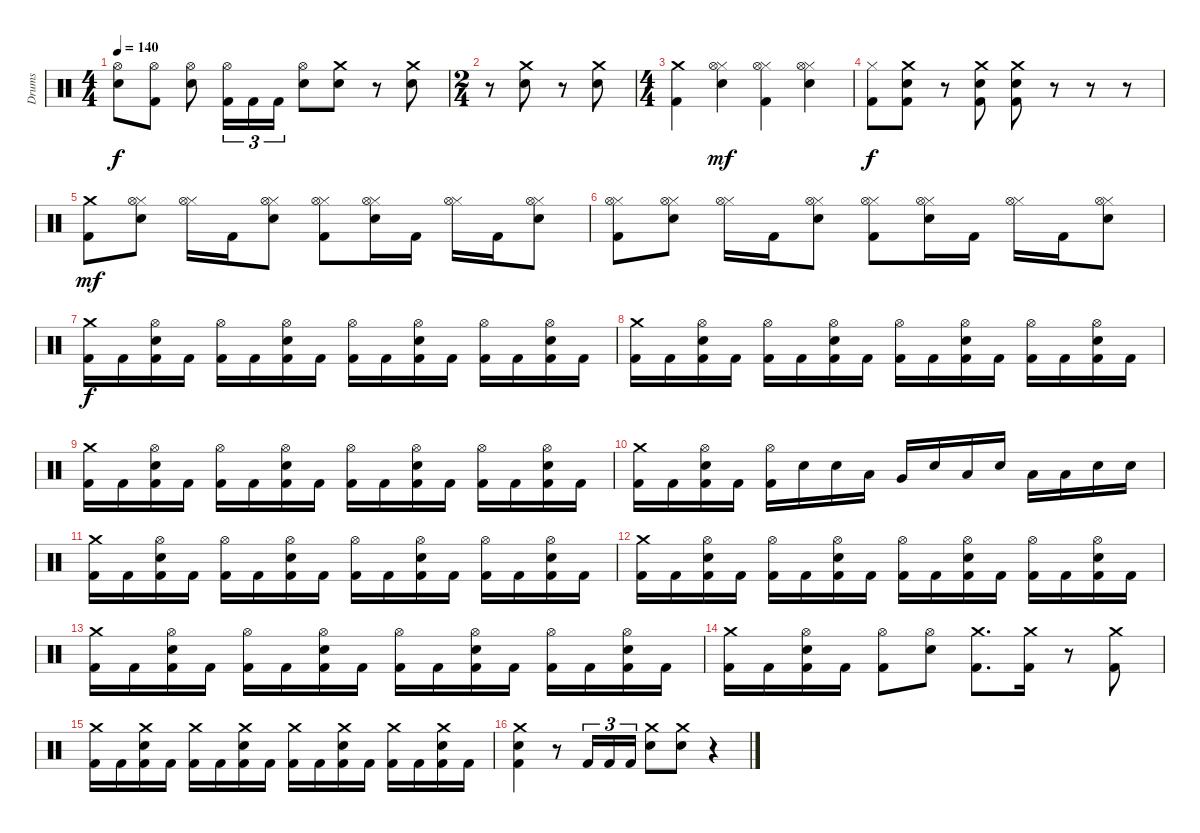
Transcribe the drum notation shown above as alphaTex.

\track ("Drums" "Drums") {instrument percussion}
\staff {score}
\articulation defaults
\ts (4 4)
\tempo 140
\clef neutral
\ks c
("Hi-Hat (open)" "Electric Snare (hit)").8{dy f} ("Hi-Hat (open)" "Kick (hit) 2").8 ("Hi-Hat (open)" "Electric Snare (hit)").8 ("Hi-Hat (open)" "Kick (hit) 2").16{tu (3 2)} "Kick (hit) 2".16{tu (3 2)} "Kick (hit) 2".16{tu (3 2)} ("Hi-Hat (open)" "Electric Snare (hit)").8 ("Crash medium (hit)" "Electric Snare (hit)").8 r.8 ("Crash medium (hit)" "Electric Snare (hit)").8 |
\ts (2 4)
r.8 ("Crash medium (hit)" "Electric Snare (hit)").8 r.8 ("Crash medium (hit)" "Electric Snare (hit)").8 |
\ts (4 4)
("Crash medium (hit)" "Kick (hit) 2").4 ("Hi-Hat (closed)" "Hi-Hat (open)" "Electric Snare (hit)").4{dy mf} ("Hi-Hat (closed)" "Hi-Hat (open)" "Kick (hit) 2").4 ("Hi-Hat (closed)" "Hi-Hat (open)" "Electric Snare (hit)").4 |
("Hi-Hat (closed)" "Kick (hit) 2").8{dy f} ("Crash medium (hit)" "Electric Snare (hit)" "Kick (hit) 2").8 r.8 ("Crash medium (hit)" "Electric Snare (hit)" "Kick (hit) 2").8 ("Crash medium (hit)" "Electric Snare (hit)" "Kick (hit) 2").8 r.8 r.8 r.8 |
("Crash medium (hit)" "Kick (hit) 2").8{dy mf} ("Hi-Hat (closed)" "Hi-Hat (open)" "Electric Snare (hit)").8 ("Hi-Hat (closed)" "Hi-Hat (open)").16 "Kick (hit) 2".16 ("Hi-Hat (closed)" "Hi-Hat (open)" "Electric Snare (hit)").8 ("Hi-Hat (closed)" "Hi-Hat (open)" "Kick (hit) 2").8 ("Hi-Hat (closed)" "Hi-Hat (open)" "Electric Snare (hit)").16 "Kick (hit) 2".16 ("Hi-Hat (closed)" "Hi-Hat (open)").16 "Kick (hit) 2".16 ("Hi-Hat (closed)" "Hi-Hat (open)" "Electric Snare (hit)").8 |
("Hi-Hat (closed)" "Hi-Hat (open)" "Kick (hit) 2").8 ("Hi-Hat (closed)" "Hi-Hat (open)" "Electric Snare (hit)").8 ("Hi-Hat (closed)" "Hi-Hat (open)").16 "Kick (hit) 2".16 ("Hi-Hat (closed)" "Hi-Hat (open)" "Electric Snare (hit)").8 ("Hi-Hat (closed)" "Hi-Hat (open)" "Kick (hit) 2").8 ("Hi-Hat (closed)" "Hi-Hat (open)" "Electric Snare (hit)").16 "Kick (hit) 2".16 ("Hi-Hat (closed)" "Hi-Hat (open)").16 "Kick (hit) 2".16 ("Hi-Hat (closed)" "Hi-Hat (open)" "Electric Snare (hit)").8 |
("Crash medium (hit)" "Kick (hit) 2").16{dy f} "Kick (hit) 2".16 ("Hi-Hat (open)" "Electric Snare (hit)" "Kick (hit) 2").16 "Kick (hit) 2".16 ("Hi-Hat (open)" "Kick (hit) 2").16 "Kick (hit) 2".16 ("Hi-Hat (open)" "Electric Snare (hit)" "Kick (hit) 2").16 "Kick (hit) 2".16 ("Hi-Hat (open)" "Kick (hit) 2").16 "Kick (hit) 2".16 ("Hi-Hat (open)" "Electric Snare (hit)" "Kick (hit) 2").16 "Kick (hit) 2".16 ("Hi-Hat (open)" "Kick (hit) 2").16 "Kick (hit) 2".16 ("Hi-Hat (open)" "Electric Snare (hit)" "Kick (hit) 2").16 "Kick (hit) 2".16 |
("Crash medium (hit)" "Kick (hit) 2").16 "Kick (hit) 2".16 ("Hi-Hat (open)" "Electric Snare (hit)" "Kick (hit) 2").16 "Kick (hit) 2".16 ("Hi-Hat (open)" "Kick (hit) 2").16 "Kick (hit) 2".16 ("Hi-Hat (open)" "Electric Snare (hit)" "Kick (hit) 2").16 "Kick (hit) 2".16 ("Hi-Hat (open)" "Kick (hit) 2").16 "Kick (hit) 2".16 ("Hi-Hat (open)" "Electric Snare (hit)" "Kick (hit) 2").16 "Kick (hit) 2".16 ("Hi-Hat (open)" "Kick (hit) 2").16 "Kick (hit) 2".16 ("Hi-Hat (open)" "Electric Snare (hit)" "Kick (hit) 2").16 "Kick (hit) 2".16 |
("Crash medium (hit)" "Kick (hit) 2").16 "Kick (hit) 2".16 ("Hi-Hat (open)" "Electric Snare (hit)" "Kick (hit) 2").16 "Kick (hit) 2".16 ("Hi-Hat (open)" "Kick (hit) 2").16 "Kick (hit) 2".16 ("Hi-Hat (open)" "Electric Snare (hit)" "Kick (hit) 2").16 "Kick (hit) 2".16 ("Hi-Hat (open)" "Kick (hit) 2").16 "Kick (hit) 2".16 ("Hi-Hat (open)" "Electric Snare (hit)" "Kick (hit) 2").16 "Kick (hit) 2".16 ("Hi-Hat (open)" "Kick (hit) 2").16 "Kick (hit) 2".16 ("Hi-Hat (open)" "Electric Snare (hit)" "Kick (hit) 2").16 "Kick (hit) 2".16 |
("Crash medium (hit)" "Kick (hit) 2").16 "Kick (hit) 2".16 ("Hi-Hat (open)" "Electric Snare (hit)" "Kick (hit) 2").16 "Kick (hit) 2".16 ("Hi-Hat (open)" "Kick (hit) 2").16 "Electric Snare (hit)".16 "Electric Snare (hit)".16 "Low Tom (hit)".16 "Very Low Tom (hit)".16 "Electric Snare (hit)".16 "Low Tom (hit)".16 "Electric Snare (hit)".16 "Low Floor Tom (hit)".16 "Low Floor Tom (hit)".16 "Electric Snare (hit)".16 "Electric Snare (hit)".16 |
("Crash medium (hit)" "Kick (hit) 2").16 "Kick (hit) 2".16 ("Hi-Hat (open)" "Electric Snare (hit)" "Kick (hit) 2").16 "Kick (hit) 2".16 ("Hi-Hat (open)" "Kick (hit) 2").16 "Kick (hit) 2".16 ("Hi-Hat (open)" "Electric Snare (hit)" "Kick (hit) 2").16 "Kick (hit) 2".16 ("Hi-Hat (open)" "Kick (hit) 2").16 "Kick (hit) 2".16 ("Hi-Hat (open)" "Electric Snare (hit)" "Kick (hit) 2").16 "Kick (hit) 2".16 ("Hi-Hat (open)" "Kick (hit) 2").16 "Kick (hit) 2".16 ("Hi-Hat (open)" "Electric Snare (hit)" "Kick (hit) 2").16 "Kick (hit) 2".16 |
("Crash medium (hit)" "Kick (hit) 2").16 "Kick (hit) 2".16 ("Hi-Hat (open)" "Electric Snare (hit)" "Kick (hit) 2").16 "Kick (hit) 2".16 ("Hi-Hat (open)" "Kick (hit) 2").16 "Kick (hit) 2".16 ("Hi-Hat (open)" "Electric Snare (hit)" "Kick (hit) 2").16 "Kick (hit) 2".16 ("Hi-Hat (open)" "Kick (hit) 2").16 "Kick (hit) 2".16 ("Hi-Hat (open)" "Electric Snare (hit)" "Kick (hit) 2").16 "Kick (hit) 2".16 ("Hi-Hat (open)" "Kick (hit) 2").16 "Kick (hit) 2".16 ("Hi-Hat (open)" "Electric Snare (hit)" "Kick (hit) 2").16 "Kick (hit) 2".16 |
("Crash medium (hit)" "Kick (hit) 2").16 "Kick (hit) 2".16 ("Hi-Hat (open)" "Electric Snare (hit)" "Kick (hit) 2").16 "Kick (hit) 2".16 ("Hi-Hat (open)" "Kick (hit) 2").16 "Kick (hit) 2".16 ("Hi-Hat (open)" "Electric Snare (hit)" "Kick (hit) 2").16 "Kick (hit) 2".16 ("Hi-Hat (open)" "Kick (hit) 2").16 "Kick (hit) 2".16 ("Hi-Hat (open)" "Electric Snare (hit)" "Kick (hit) 2").16 "Kick (hit) 2".16 ("Hi-Hat (open)" "Kick (hit) 2").16 "Kick (hit) 2".16 ("Hi-Hat (open)" "Electric Snare (hit)" "Kick (hit) 2").16 "Kick (hit) 2".16 |
("Crash medium (hit)" "Kick (hit) 2").16 "Kick (hit) 2".16 ("Hi-Hat (open)" "Electric Snare (hit)" "Kick (hit) 2").16 "Kick (hit) 2".16 ("Hi-Hat (open)" "Kick (hit) 2").8 ("Hi-Hat (open)" "Electric Snare (hit)").8 ("Crash medium (hit)" "Kick (hit) 2").8{d} ("Crash medium (hit)" "Kick (hit) 2").16 r.8 ("Crash medium (hit)" "Kick (hit) 2").8 |
("Crash medium (hit)" "Kick (hit) 2").16 "Kick (hit) 2".16 ("Crash medium (hit)" "Electric Snare (hit)" "Kick (hit) 2").16 "Kick (hit) 2".16 ("Crash medium (hit)" "Kick (hit) 2").16 "Kick (hit) 2".16 ("Crash medium (hit)" "Electric Snare (hit)" "Kick (hit) 2").16 "Kick (hit) 2".16 ("Crash medium (hit)" "Kick (hit) 2").16 "Kick (hit) 2".16 ("Crash medium (hit)" "Electric Snare (hit)" "Kick (hit) 2").16 "Kick (hit) 2".16 ("Crash medium (hit)" "Kick (hit) 2").16 "Kick (hit) 2".16 ("Crash medium (hit)" "Electric Snare (hit)" "Kick (hit) 2").16 "Kick (hit) 2".16 |
("Crash medium (hit)" "Electric Snare (hit)" "Kick (hit) 2").4 r.8 "Kick (hit) 2".16{tu (3 2)} "Kick (hit) 2".16{tu (3 2)} "Kick (hit) 2".16{tu (3 2)} ("Crash medium (hit)" "Electric Snare (hit)").8 ("Crash medium (hit)" "Electric Snare (hit)").8 r.4
